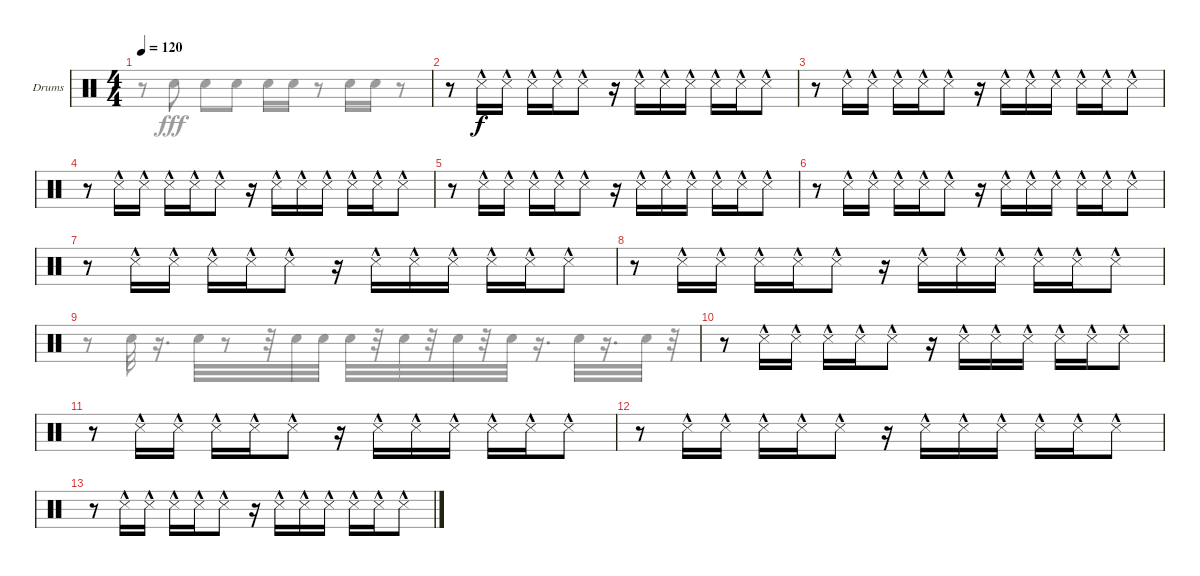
\defaultSystemsLayout 4
\bracketExtendMode nobrackets
\firstSystemTrackNameOrientation horizontal
\otherSystemsTrackNameOrientation horizontal
\track ("Drumkit" "Drums") {instrument percussion}
\staff {score}
\articulation defaults
\voice
\ts (4 4)
\tempo 120
\clef neutral
\ks c
|
r.8 "Snare (side stick) 3"{hac}.16 "Snare (side stick) 3"{hac}.16 "Snare (side stick) 3"{hac}.16 "Snare (side stick) 3"{hac}.16 "Snare (side stick) 3"{hac}.8 r.16 "Snare (side stick) 3"{hac}.16 "Snare (side stick) 3"{hac}.16 "Snare (side stick) 3"{hac}.16 "Snare (side stick) 3"{hac}.16 "Snare (side stick) 3"{hac}.16 "Snare (side stick) 3"{hac}.8 |
r.8 "Snare (side stick) 3"{hac}.16 "Snare (side stick) 3"{hac}.16 "Snare (side stick) 3"{hac}.16 "Snare (side stick) 3"{hac}.16 "Snare (side stick) 3"{hac}.8 r.16 "Snare (side stick) 3"{hac}.16 "Snare (side stick) 3"{hac}.16 "Snare (side stick) 3"{hac}.16 "Snare (side stick) 3"{hac}.16 "Snare (side stick) 3"{hac}.16 "Snare (side stick) 3"{hac}.8 |
r.8 "Snare (side stick) 3"{hac}.16 "Snare (side stick) 3"{hac}.16 "Snare (side stick) 3"{hac}.16 "Snare (side stick) 3"{hac}.16 "Snare (side stick) 3"{hac}.8 r.16 "Snare (side stick) 3"{hac}.16 "Snare (side stick) 3"{hac}.16 "Snare (side stick) 3"{hac}.16 "Snare (side stick) 3"{hac}.16 "Snare (side stick) 3"{hac}.16 "Snare (side stick) 3"{hac}.8 |
r.8 "Snare (side stick) 3"{hac}.16 "Snare (side stick) 3"{hac}.16 "Snare (side stick) 3"{hac}.16 "Snare (side stick) 3"{hac}.16 "Snare (side stick) 3"{hac}.8 r.16 "Snare (side stick) 3"{hac}.16 "Snare (side stick) 3"{hac}.16 "Snare (side stick) 3"{hac}.16 "Snare (side stick) 3"{hac}.16 "Snare (side stick) 3"{hac}.16 "Snare (side stick) 3"{hac}.8 |
r.8 "Snare (side stick) 3"{hac}.16 "Snare (side stick) 3"{hac}.16 "Snare (side stick) 3"{hac}.16 "Snare (side stick) 3"{hac}.16 "Snare (side stick) 3"{hac}.8 r.16 "Snare (side stick) 3"{hac}.16 "Snare (side stick) 3"{hac}.16 "Snare (side stick) 3"{hac}.16 "Snare (side stick) 3"{hac}.16 "Snare (side stick) 3"{hac}.16 "Snare (side stick) 3"{hac}.8 |
r.8 "Snare (side stick) 3"{hac}.16 "Snare (side stick) 3"{hac}.16 "Snare (side stick) 3"{hac}.16 "Snare (side stick) 3"{hac}.16 "Snare (side stick) 3"{hac}.8 r.16 "Snare (side stick) 3"{hac}.16 "Snare (side stick) 3"{hac}.16 "Snare (side stick) 3"{hac}.16 "Snare (side stick) 3"{hac}.16 "Snare (side stick) 3"{hac}.16 "Snare (side stick) 3"{hac}.8 |
r.8 "Snare (side stick) 3"{hac}.16 "Snare (side stick) 3"{hac}.16 "Snare (side stick) 3"{hac}.16 "Snare (side stick) 3"{hac}.16 "Snare (side stick) 3"{hac}.8 r.16 "Snare (side stick) 3"{hac}.16 "Snare (side stick) 3"{hac}.16 "Snare (side stick) 3"{hac}.16 "Snare (side stick) 3"{hac}.16 "Snare (side stick) 3"{hac}.16 "Snare (side stick) 3"{hac}.8 |
|
r.8 "Snare (side stick) 3"{hac}.16 "Snare (side stick) 3"{hac}.16 "Snare (side stick) 3"{hac}.16 "Snare (side stick) 3"{hac}.16 "Snare (side stick) 3"{hac}.8 r.16 "Snare (side stick) 3"{hac}.16 "Snare (side stick) 3"{hac}.16 "Snare (side stick) 3"{hac}.16 "Snare (side stick) 3"{hac}.16 "Snare (side stick) 3"{hac}.16 "Snare (side stick) 3"{hac}.8 |
r.8 "Snare (side stick) 3"{hac}.16 "Snare (side stick) 3"{hac}.16 "Snare (side stick) 3"{hac}.16 "Snare (side stick) 3"{hac}.16 "Snare (side stick) 3"{hac}.8 r.16 "Snare (side stick) 3"{hac}.16 "Snare (side stick) 3"{hac}.16 "Snare (side stick) 3"{hac}.16 "Snare (side stick) 3"{hac}.16 "Snare (side stick) 3"{hac}.16 "Snare (side stick) 3"{hac}.8 |
r.8 "Snare (side stick) 3"{hac}.16 "Snare (side stick) 3"{hac}.16 "Snare (side stick) 3"{hac}.16 "Snare (side stick) 3"{hac}.16 "Snare (side stick) 3"{hac}.8 r.16 "Snare (side stick) 3"{hac}.16 "Snare (side stick) 3"{hac}.16 "Snare (side stick) 3"{hac}.16 "Snare (side stick) 3"{hac}.16 "Snare (side stick) 3"{hac}.16 "Snare (side stick) 3"{hac}.8 |
r.8 "Snare (side stick) 3"{hac}.16 "Snare (side stick) 3"{hac}.16 "Snare (side stick) 3"{hac}.16 "Snare (side stick) 3"{hac}.16 "Snare (side stick) 3"{hac}.8 r.16 "Snare (side stick) 3"{hac}.16 "Snare (side stick) 3"{hac}.16 "Snare (side stick) 3"{hac}.16 "Snare (side stick) 3"{hac}.16 "Snare (side stick) 3"{hac}.16 "Snare (side stick) 3"{hac}.8
\voice
\clef neutral
\ottava regular
\simile none
\ks c
r.8{dy fff} "Snare (hit) 2".8 "Snare (hit) 2".8 "Snare (hit) 2".8 "Snare (hit) 2".16 "Snare (hit) 2".16 r.8 "Snare (hit) 2".16 "Snare (hit) 2".16 r.8 |
|
|
|
|
|
|
|
r.8 "Snare (hit) 2".32 r.16{d} "Snare (hit) 2".32 r.8 r.32 "Snare (hit) 2".32 "Snare (hit) 2".32 "Snare (hit) 2".32 r.32 "Snare (hit) 2".32 r.32 "Snare (hit) 2".32 r.32 "Snare (hit) 2".32 r.16{d} "Snare (hit) 2".32 r.16{d} "Snare (hit) 2".32 r.32 |
|
|
|
